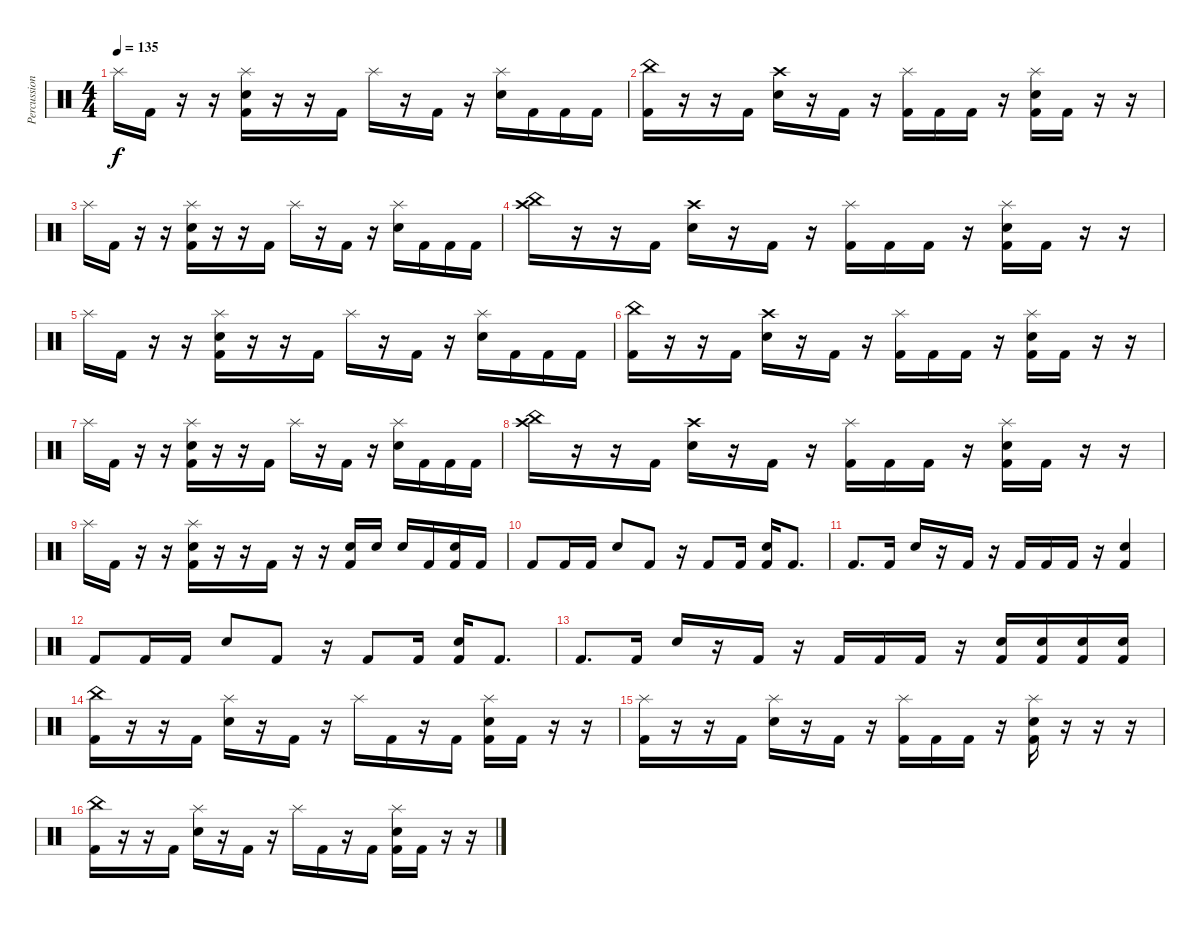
\track ("Percussion" "Percussion") {instrument percussion}
\staff {score}
\articulation defaults
\ts (4 4)
\tempo 135
\clef neutral
\ks c "Splash (hit)".16{dy f} "Kick (hit) 2".16
r.16 r.16 ("Splash (hit)" "Electric Snare (hit)" "Kick (hit) 2").16 r.16 r.16 "Kick (hit) 2".16 "Splash (hit)".16 r.16 "Kick (hit) 2".16 r.16 ("Splash (hit)" "Electric Snare (hit)").16 "Kick (hit) 2".16 "Kick (hit) 2".16 "Kick (hit) 2".16 |
("China (hit)" "Kick (hit) 2").16 r.16 r.16 "Kick (hit) 2".16 ("Crash high (hit)" "Electric Snare (hit)").16 r.16 "Kick (hit) 2".16 r.16 ("Splash (hit)" "Kick (hit) 2").16 "Kick (hit) 2".16 "Kick (hit) 2".16 r.16 ("Splash (hit)" "Electric Snare (hit)" "Kick (hit) 2").16 "Kick (hit) 2".16 r.16 r.16 |
"Splash (hit)".16 "Kick (hit) 2".16 r.16 r.16 ("Splash (hit)" "Electric Snare (hit)" "Kick (hit) 2").16 r.16 r.16 "Kick (hit) 2".16 "Splash (hit)".16 r.16 "Kick (hit) 2".16 r.16 ("Splash (hit)" "Electric Snare (hit)").16 "Kick (hit) 2".16 "Kick (hit) 2".16 "Kick (hit) 2".16 |
("China (hit)" "Crash high (hit)").16 r.16 r.16 "Kick (hit) 2".16 ("Crash high (hit)" "Electric Snare (hit)").16 r.16 "Kick (hit) 2".16 r.16 ("Splash (hit)" "Kick (hit) 2").16 "Kick (hit) 2".16 "Kick (hit) 2".16 r.16 ("Splash (hit)" "Electric Snare (hit)" "Kick (hit) 2").16 "Kick (hit) 2".16 r.16 r.16 |
"Splash (hit)".16 "Kick (hit) 2".16 r.16 r.16 ("Splash (hit)" "Electric Snare (hit)" "Kick (hit) 2").16 r.16 r.16 "Kick (hit) 2".16 "Splash (hit)".16 r.16 "Kick (hit) 2".16 r.16 ("Splash (hit)" "Electric Snare (hit)").16 "Kick (hit) 2".16 "Kick (hit) 2".16 "Kick (hit) 2".16 |
("China (hit)" "Kick (hit) 2").16 r.16 r.16 "Kick (hit) 2".16 ("Crash high (hit)" "Electric Snare (hit)").16 r.16 "Kick (hit) 2".16 r.16 ("Splash (hit)" "Kick (hit) 2").16 "Kick (hit) 2".16 "Kick (hit) 2".16 r.16 ("Splash (hit)" "Electric Snare (hit)" "Kick (hit) 2").16 "Kick (hit) 2".16 r.16 r.16 |
"Splash (hit)".16 "Kick (hit) 2".16 r.16 r.16 ("Splash (hit)" "Electric Snare (hit)" "Kick (hit) 2").16 r.16 r.16 "Kick (hit) 2".16 "Splash (hit)".16 r.16 "Kick (hit) 2".16 r.16 ("Splash (hit)" "Electric Snare (hit)").16 "Kick (hit) 2".16 "Kick (hit) 2".16 "Kick (hit) 2".16 |
("China (hit)" "Crash high (hit)").16 r.16 r.16 "Kick (hit) 2".16 ("Crash high (hit)" "Electric Snare (hit)").16 r.16 "Kick (hit) 2".16 r.16 ("Splash (hit)" "Kick (hit) 2").16 "Kick (hit) 2".16 "Kick (hit) 2".16 r.16 ("Splash (hit)" "Electric Snare (hit)" "Kick (hit) 2").16 "Kick (hit) 2".16 r.16 r.16 |
"Splash (hit)".16 "Kick (hit) 2".16 r.16 r.16 ("Splash (hit)" "Electric Snare (hit)" "Kick (hit) 2").16 r.16 r.16 "Kick (hit) 2".16 r.16 r.16 ("Electric Snare (hit)" "Kick (hit) 2").16 "Electric Snare (hit)".16 "Electric Snare (hit)".16 "Kick (hit) 2".16 ("Electric Snare (hit)" "Kick (hit) 2").16 "Kick (hit) 2".16 |
"Kick (hit) 2".8 "Kick (hit) 2".16 "Kick (hit) 2".16 "Electric Snare (hit)".8 "Kick (hit) 2".8 r.16 "Kick (hit) 2".8 "Kick (hit) 2".16 ("Electric Snare (hit)" "Kick (hit) 2").16 "Kick (hit) 2".8{d} |
"Kick (hit) 2".8{d} "Kick (hit) 2".16 "Electric Snare (hit)".16 r.16 "Kick (hit) 2".16 r.16 "Kick (hit) 2".16 "Kick (hit) 2".16 "Kick (hit) 2".16 r.16 ("Electric Snare (hit)" "Kick (hit) 2").4 |
"Kick (hit) 2".8 "Kick (hit) 2".16 "Kick (hit) 2".16 "Electric Snare (hit)".8 "Kick (hit) 2".8 r.16 "Kick (hit) 2".8 "Kick (hit) 2".16 ("Electric Snare (hit)" "Kick (hit) 2").16 "Kick (hit) 2".8{d} |
"Kick (hit) 2".8{d} "Kick (hit) 2".16 "Electric Snare (hit)".16 r.16 "Kick (hit) 2".16 r.16 "Kick (hit) 2".16 "Kick (hit) 2".16 "Kick (hit) 2".16 r.16 ("Electric Snare (hit)" "Kick (hit) 2").16 ("Electric Snare (hit)" "Kick (hit) 2").16 ("Electric Snare (hit)" "Kick (hit) 2").16 ("Electric Snare (hit)" "Kick (hit) 2").16 |
("China (hit)" "Kick (hit) 2").16 r.16 r.16 "Kick (hit) 2".16 ("Splash (hit)" "Electric Snare (hit)").16 r.16 "Kick (hit) 2".16 r.16 "Splash (hit)".16 "Kick (hit) 2".16 r.16 "Kick (hit) 2".16 ("Splash (hit)" "Electric Snare (hit)" "Kick (hit) 2").16 "Kick (hit) 2".16 r.16 r.16 |
("Splash (hit)" "Kick (hit) 2").16 r.16 r.16 "Kick (hit) 2".16 ("Splash (hit)" "Electric Snare (hit)").16 r.16 "Kick (hit) 2".16 r.16 ("Splash (hit)" "Kick (hit) 2").16 "Kick (hit) 2".16 "Kick (hit) 2".16 r.16 ("Splash (hit)" "Electric Snare (hit)" "Kick (hit) 2").16 r.16 r.16 r.16 |
("China (hit)" "Kick (hit) 2").16 r.16 r.16 "Kick (hit) 2".16 ("Splash (hit)" "Electric Snare (hit)").16 r.16 "Kick (hit) 2".16 r.16 "Splash (hit)".16 "Kick (hit) 2".16 r.16 "Kick (hit) 2".16 ("Splash (hit)" "Electric Snare (hit)" "Kick (hit) 2").16 "Kick (hit) 2".16 r.16 r.16
